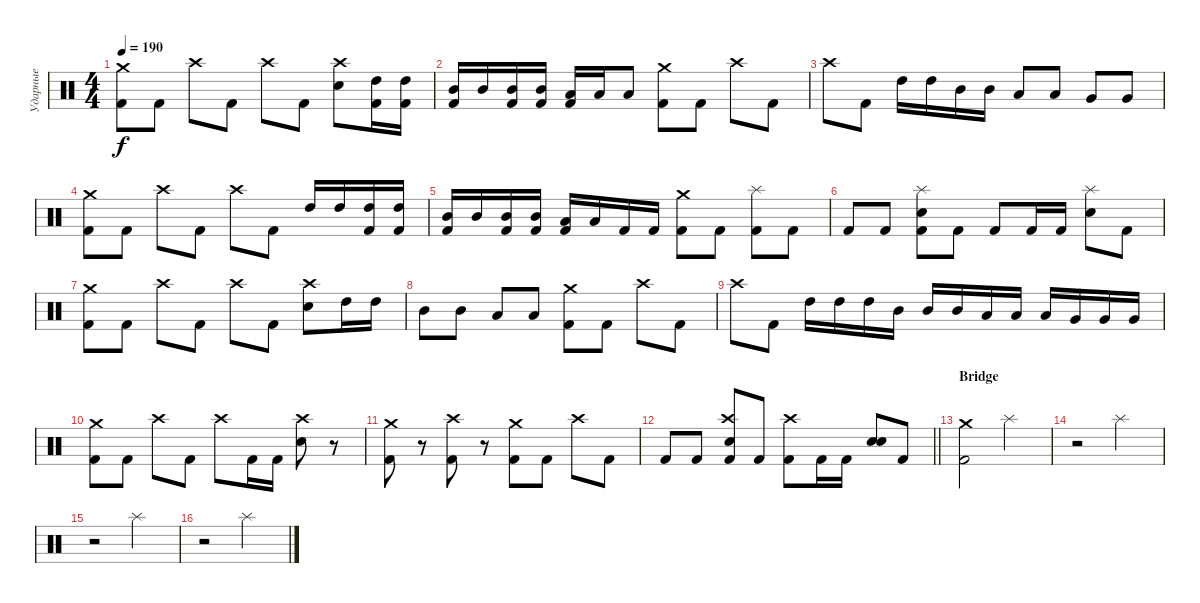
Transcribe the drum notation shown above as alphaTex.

\track ("Ударные" "Ударные") {instrument percussion}
\staff {score}
\articulation defaults
\ts (4 4)
\tempo 190
\clef neutral
\ks c
("Crash medium (hit)" "Kick (hit) 2").8{dy f} "Kick (hit) 2".8 "Crash high (hit)".8 "Kick (hit) 2".8 "Crash high (hit)".8 "Kick (hit) 2".8 ("Crash high (hit)" "Electric Snare (hit)").8 ("High Tom (hit)" "Kick (hit) 2").16 ("High Tom (hit)" "Kick (hit) 2").16 |
("Mid Tom (hit)" "Kick (hit) 2").16 "Mid Tom (hit)".16 ("Mid Tom (hit)" "Kick (hit) 2").16 ("Mid Tom (hit)" "Kick (hit) 2").16 ("Low Tom (hit)" "Kick (hit) 2").16 "Low Tom (hit)".16 "Low Tom (hit)".8 ("Crash medium (hit)" "Kick (hit) 2").8 "Kick (hit) 2".8 "Crash high (hit)".8 "Kick (hit) 2".8 |
"Crash high (hit)".8 "Kick (hit) 2".8 "High Tom (hit)".16 "High Tom (hit)".16 "Mid Tom (hit)".16 "Mid Tom (hit)".16 "Low Tom (hit)".8 "Low Tom (hit)".8 "Very Low Tom (hit)".8 "Very Low Tom (hit)".8 |
("Crash medium (hit)" "Kick (hit) 2").8 "Kick (hit) 2".8 "Crash high (hit)".8 "Kick (hit) 2".8 "Crash high (hit)".8 "Kick (hit) 2".8 "High Tom (hit)".16 "High Tom (hit)".16 ("High Tom (hit)" "Kick (hit) 2").16 ("High Tom (hit)" "Kick (hit) 2").16 |
("Mid Tom (hit)" "Kick (hit) 2").16 "Mid Tom (hit)".16 ("Mid Tom (hit)" "Kick (hit) 2").16 ("Mid Tom (hit)" "Kick (hit) 2").16 ("Low Tom (hit)" "Kick (hit) 2").16 "Low Tom (hit)".16 "Kick (hit) 2".16 "Kick (hit) 2".16 ("Crash medium (hit)" "Kick (hit) 2").8 "Kick (hit) 2".8 ("Splash (hit)" "Kick (hit) 2").8 "Kick (hit) 2".8 |
"Kick (hit) 2".8 "Kick (hit) 2".8 ("Splash (hit)" "Electric Snare (hit)" "Kick (hit) 2").8 "Kick (hit) 2".8 "Kick (hit) 2".8 "Kick (hit) 2".16 "Kick (hit) 2".16 ("Splash (hit)" "Electric Snare (hit)").8 "Kick (hit) 2".8 |
("Crash medium (hit)" "Kick (hit) 2").8 "Kick (hit) 2".8 "Crash high (hit)".8 "Kick (hit) 2".8 "Crash high (hit)".8 "Kick (hit) 2".8 ("Crash high (hit)" "Electric Snare (hit)").8 "High Tom (hit)".16 "High Tom (hit)".16 |
"Mid Tom (hit)".8 "Mid Tom (hit)".8 "Low Tom (hit)".8 "Low Tom (hit)".8 ("Crash medium (hit)" "Kick (hit) 2").8 "Kick (hit) 2".8 "Crash high (hit)".8 "Kick (hit) 2".8 |
"Crash high (hit)".8 "Kick (hit) 2".8 "High Tom (hit)".16 "High Tom (hit)".16 "High Tom (hit)".16 "Mid Tom (hit)".16 "Mid Tom (hit)".16 "Mid Tom (hit)".16 "Low Tom (hit)".16 "Low Tom (hit)".16 "Low Tom (hit)".16 "Very Low Tom (hit)".16 "Very Low Tom (hit)".16 "Very Low Tom (hit)".16 |
("Crash medium (hit)" "Kick (hit) 2").8 "Kick (hit) 2".8 "Crash high (hit)".8 "Kick (hit) 2".8 "Crash high (hit)".8 "Kick (hit) 2".16 "Kick (hit) 2".16 ("Crash high (hit)" "Electric Snare (hit)").8 r.8 |
("Crash medium (hit)" "Kick (hit) 2").8 r.8 ("Crash high (hit)" "Kick (hit) 2").8 r.8 ("Crash medium (hit)" "Kick (hit) 2").8 "Kick (hit) 2".8 "Crash high (hit)".8 "Kick (hit) 2".8 |
\barLineRight lightlight "Kick (hit) 2".8 "Kick (hit) 2".8
("Crash high (hit)" "Electric Snare (hit)" "Kick (hit) 2").8 "Kick (hit) 2".8 ("Crash high (hit)" "Kick (hit) 2").8 "Kick (hit) 2".16 "Kick (hit) 2".16 ("Electric Snare (hit)" "Electric Snare (hit)").8 "Kick (hit) 2".8 |
\section ("" "Bridge")
("Crash medium (hit)" "Kick (hit) 2").2 "Splash (hit)".2 |
r.2 "Splash (hit)".2 |
r.2 "Splash (hit)".2 |
r.2 "Splash (hit)".2
